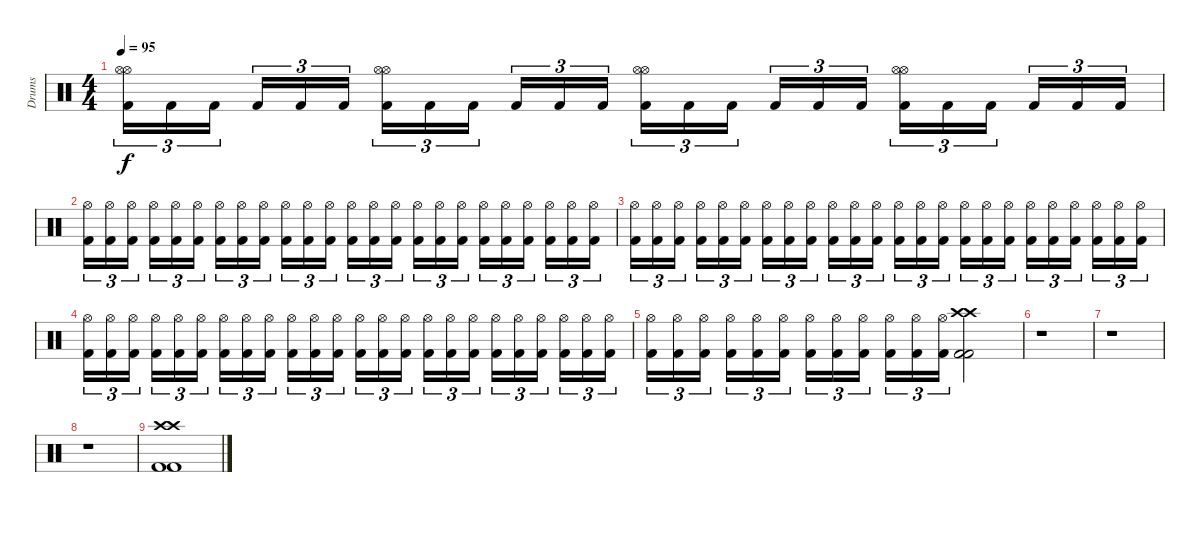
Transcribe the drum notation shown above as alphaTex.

\track ("Drums" "Drums") {instrument percussion}
\staff {score}
\articulation defaults
\ts (4 4)
\tempo 95
\clef neutral
\ks c
("Kick (hit) 2" "Hi-Hat (open)" "Hi-Hat (open)").16{tu (3 2) dy f} "Kick (hit) 2".16{tu (3 2)} "Kick (hit) 2".16{tu (3 2) beam splitsecondary} "Kick (hit) 2".16{tu (3 2)} "Kick (hit) 2".16{tu (3 2)} "Kick (hit) 2".16{tu (3 2)} ("Kick (hit) 2" "Hi-Hat (open)" "Hi-Hat (open)").16{tu (3 2)} "Kick (hit) 2".16{tu (3 2)} "Kick (hit) 2".16{tu (3 2) beam splitsecondary} "Kick (hit) 2".16{tu (3 2)} "Kick (hit) 2".16{tu (3 2)} "Kick (hit) 2".16{tu (3 2)} ("Kick (hit) 2" "Hi-Hat (open)" "Hi-Hat (open)").16{tu (3 2)} "Kick (hit) 2".16{tu (3 2)} "Kick (hit) 2".16{tu (3 2) beam splitsecondary} "Kick (hit) 2".16{tu (3 2)} "Kick (hit) 2".16{tu (3 2)} "Kick (hit) 2".16{tu (3 2)} ("Kick (hit) 2" "Hi-Hat (open)" "Hi-Hat (open)").16{tu (3 2)} "Kick (hit) 2".16{tu (3 2)} "Kick (hit) 2".16{tu (3 2) beam splitsecondary} "Kick (hit) 2".16{tu (3 2)} "Kick (hit) 2".16{tu (3 2)} "Kick (hit) 2".16{tu (3 2)} |
("Kick (hit) 2" "Hi-Hat (open)").16{tu (3 2)} ("Kick (hit) 2" "Hi-Hat (open)").16{tu (3 2)} ("Kick (hit) 2" "Hi-Hat (open)").16{tu (3 2) beam splitsecondary} ("Kick (hit) 2" "Hi-Hat (open)").16{tu (3 2)} ("Kick (hit) 2" "Hi-Hat (open)").16{tu (3 2)} ("Kick (hit) 2" "Hi-Hat (open)").16{tu (3 2)} ("Kick (hit) 2" "Hi-Hat (open)").16{tu (3 2)} ("Kick (hit) 2" "Hi-Hat (open)").16{tu (3 2)} ("Kick (hit) 2" "Hi-Hat (open)").16{tu (3 2) beam splitsecondary} ("Kick (hit) 2" "Hi-Hat (open)").16{tu (3 2)} ("Kick (hit) 2" "Hi-Hat (open)").16{tu (3 2)} ("Kick (hit) 2" "Hi-Hat (open)").16{tu (3 2)} ("Kick (hit) 2" "Hi-Hat (open)").16{tu (3 2)} ("Kick (hit) 2" "Hi-Hat (open)").16{tu (3 2)} ("Kick (hit) 2" "Hi-Hat (open)").16{tu (3 2) beam splitsecondary} ("Kick (hit) 2" "Hi-Hat (open)").16{tu (3 2)} ("Kick (hit) 2" "Hi-Hat (open)").16{tu (3 2)} ("Kick (hit) 2" "Hi-Hat (open)").16{tu (3 2)} ("Kick (hit) 2" "Hi-Hat (open)").16{tu (3 2)} ("Kick (hit) 2" "Hi-Hat (open)").16{tu (3 2)} ("Kick (hit) 2" "Hi-Hat (open)").16{tu (3 2) beam splitsecondary} ("Kick (hit) 2" "Hi-Hat (open)").16{tu (3 2)} ("Kick (hit) 2" "Hi-Hat (open)").16{tu (3 2)} ("Kick (hit) 2" "Hi-Hat (open)").16{tu (3 2)} |
("Kick (hit) 2" "Hi-Hat (open)").16{tu (3 2)} ("Kick (hit) 2" "Hi-Hat (open)").16{tu (3 2)} ("Kick (hit) 2" "Hi-Hat (open)").16{tu (3 2) beam splitsecondary} ("Kick (hit) 2" "Hi-Hat (open)").16{tu (3 2)} ("Kick (hit) 2" "Hi-Hat (open)").16{tu (3 2)} ("Kick (hit) 2" "Hi-Hat (open)").16{tu (3 2)} ("Kick (hit) 2" "Hi-Hat (open)").16{tu (3 2)} ("Kick (hit) 2" "Hi-Hat (open)").16{tu (3 2)} ("Kick (hit) 2" "Hi-Hat (open)").16{tu (3 2) beam splitsecondary} ("Kick (hit) 2" "Hi-Hat (open)").16{tu (3 2)} ("Kick (hit) 2" "Hi-Hat (open)").16{tu (3 2)} ("Kick (hit) 2" "Hi-Hat (open)").16{tu (3 2)} ("Kick (hit) 2" "Hi-Hat (open)").16{tu (3 2)} ("Kick (hit) 2" "Hi-Hat (open)").16{tu (3 2)} ("Kick (hit) 2" "Hi-Hat (open)").16{tu (3 2) beam splitsecondary} ("Kick (hit) 2" "Hi-Hat (open)").16{tu (3 2)} ("Kick (hit) 2" "Hi-Hat (open)").16{tu (3 2)} ("Kick (hit) 2" "Hi-Hat (open)").16{tu (3 2)} ("Kick (hit) 2" "Hi-Hat (open)").16{tu (3 2)} ("Kick (hit) 2" "Hi-Hat (open)").16{tu (3 2)} ("Kick (hit) 2" "Hi-Hat (open)").16{tu (3 2) beam splitsecondary} ("Kick (hit) 2" "Hi-Hat (open)").16{tu (3 2)} ("Kick (hit) 2" "Hi-Hat (open)").16{tu (3 2)} ("Kick (hit) 2" "Hi-Hat (open)").16{tu (3 2)} |
("Kick (hit) 2" "Hi-Hat (open)").16{tu (3 2)} ("Kick (hit) 2" "Hi-Hat (open)").16{tu (3 2)} ("Kick (hit) 2" "Hi-Hat (open)").16{tu (3 2) beam splitsecondary} ("Kick (hit) 2" "Hi-Hat (open)").16{tu (3 2)} ("Kick (hit) 2" "Hi-Hat (open)").16{tu (3 2)} ("Kick (hit) 2" "Hi-Hat (open)").16{tu (3 2)} ("Kick (hit) 2" "Hi-Hat (open)").16{tu (3 2)} ("Kick (hit) 2" "Hi-Hat (open)").16{tu (3 2)} ("Kick (hit) 2" "Hi-Hat (open)").16{tu (3 2) beam splitsecondary} ("Kick (hit) 2" "Hi-Hat (open)").16{tu (3 2)} ("Kick (hit) 2" "Hi-Hat (open)").16{tu (3 2)} ("Kick (hit) 2" "Hi-Hat (open)").16{tu (3 2)} ("Kick (hit) 2" "Hi-Hat (open)").16{tu (3 2)} ("Kick (hit) 2" "Hi-Hat (open)").16{tu (3 2)} ("Kick (hit) 2" "Hi-Hat (open)").16{tu (3 2) beam splitsecondary} ("Kick (hit) 2" "Hi-Hat (open)").16{tu (3 2)} ("Kick (hit) 2" "Hi-Hat (open)").16{tu (3 2)} ("Kick (hit) 2" "Hi-Hat (open)").16{tu (3 2)} ("Kick (hit) 2" "Hi-Hat (open)").16{tu (3 2)} ("Kick (hit) 2" "Hi-Hat (open)").16{tu (3 2)} ("Kick (hit) 2" "Hi-Hat (open)").16{tu (3 2) beam splitsecondary} ("Kick (hit) 2" "Hi-Hat (open)").16{tu (3 2)} ("Kick (hit) 2" "Hi-Hat (open)").16{tu (3 2)} ("Kick (hit) 2" "Hi-Hat (open)").16{tu (3 2)} |
("Kick (hit) 2" "Hi-Hat (open)").16{tu (3 2)} ("Kick (hit) 2" "Hi-Hat (open)").16{tu (3 2)} ("Kick (hit) 2" "Hi-Hat (open)").16{tu (3 2) beam splitsecondary} ("Kick (hit) 2" "Hi-Hat (open)").16{tu (3 2)} ("Kick (hit) 2" "Hi-Hat (open)").16{tu (3 2)} ("Kick (hit) 2" "Hi-Hat (open)").16{tu (3 2)} ("Kick (hit) 2" "Hi-Hat (open)").16{tu (3 2)} ("Kick (hit) 2" "Hi-Hat (open)").16{tu (3 2)} ("Kick (hit) 2" "Hi-Hat (open)").16{tu (3 2) beam splitsecondary} ("Kick (hit) 2" "Hi-Hat (open)").16{tu (3 2)} ("Kick (hit) 2" "Hi-Hat (open)").16{tu (3 2)} ("Kick (hit) 2" "Hi-Hat (open)").16{tu (3 2)} ("Kick (hit) 2" "Kick (hit) 2" "Crash high (hit)" "Crash high (hit)").2 |
r.1 |
r.1 |
r.1 |
("Kick (hit) 2" "Kick (hit) 2" "Crash high (hit)" "Crash high (hit)").1
